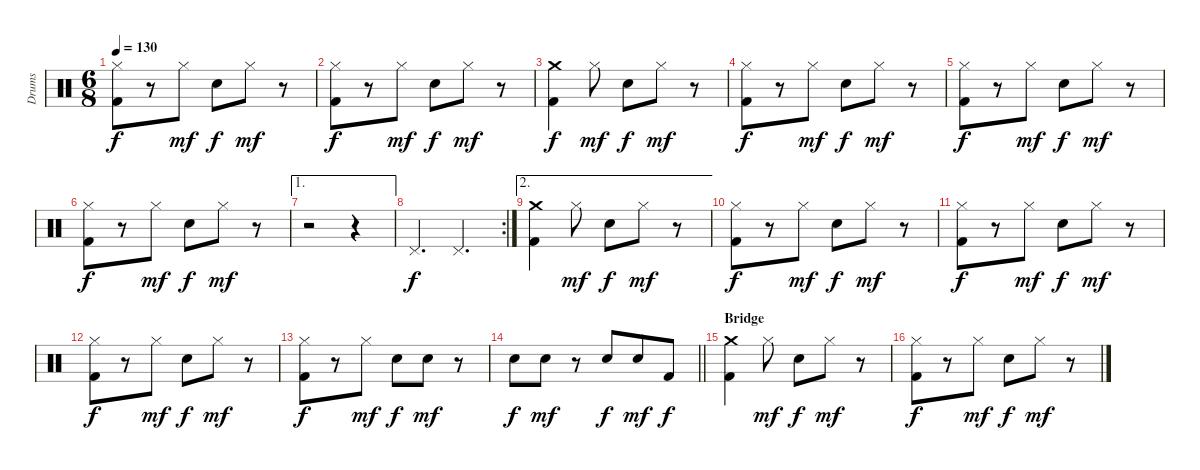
\track ("Drums" "Drums") {instrument percussion}
\staff {score}
\articulation defaults
\ts (6 8)
\tempo 130
\clef neutral
\ks c
("Hi-Hat (closed)" "Kick (hit) 2").8{dy f} r.8 "Hi-Hat (closed)".8{dy mf} "Snare (hit) 2".8{dy f} "Hi-Hat (closed)".8{dy mf} r.8 |
("Hi-Hat (closed)" "Kick (hit) 2").8{dy f} r.8 "Hi-Hat (closed)".8{dy mf} "Snare (hit) 2".8{dy f} "Hi-Hat (closed)".8{dy mf} r.8 |
("Crash medium (hit)" "Kick (hit) 2").4{dy f} "Hi-Hat (closed)".8{dy mf} "Snare (hit) 2".8{dy f} "Hi-Hat (closed)".8{dy mf} r.8 |
("Hi-Hat (closed)" "Kick (hit) 2").8{dy f} r.8 "Hi-Hat (closed)".8{dy mf} "Snare (hit) 2".8{dy f} "Hi-Hat (closed)".8{dy mf} r.8 |
("Hi-Hat (closed)" "Kick (hit) 2").8{dy f} r.8 "Hi-Hat (closed)".8{dy mf} "Snare (hit) 2".8{dy f} "Hi-Hat (closed)".8{dy mf} r.8 |
("Hi-Hat (closed)" "Kick (hit) 2").8{dy f} r.8 "Hi-Hat (closed)".8{dy mf} "Snare (hit) 2".8{dy f} "Hi-Hat (closed)".8{dy mf} r.8 |
\ae 1
r.2 r.4 |
\rc 2 "Pedal Hi-Hat (hit)".4{d dy f} "Pedal Hi-Hat (hit)".4{d}
|
\ae 2
("Crash medium (hit)" "Kick (hit) 2").4 "Hi-Hat (closed)".8{dy mf} "Snare (hit) 2".8{dy f} "Hi-Hat (closed)".8{dy mf} r.8 |
("Hi-Hat (closed)" "Kick (hit) 2").8{dy f} r.8 "Hi-Hat (closed)".8{dy mf} "Snare (hit) 2".8{dy f} "Hi-Hat (closed)".8{dy mf} r.8 |
("Hi-Hat (closed)" "Kick (hit) 2").8{dy f} r.8 "Hi-Hat (closed)".8{dy mf} "Snare (hit) 2".8{dy f} "Hi-Hat (closed)".8{dy mf} r.8 |
("Hi-Hat (closed)" "Kick (hit) 2").8{dy f} r.8 "Hi-Hat (closed)".8{dy mf} "Snare (hit) 2".8{dy f} "Hi-Hat (closed)".8{dy mf} r.8 |
("Hi-Hat (closed)" "Kick (hit) 2").8{dy f} r.8 "Hi-Hat (closed)".8{dy mf} "Snare (hit) 2".8{dy f} "Snare (hit) 2".8{dy mf} r.8 |
\barLineRight lightlight "Snare (hit) 2".8{dy f} "Snare (hit) 2".8{dy mf}
r.8 "Snare (hit) 2".8{dy f} "Snare (hit) 2".8{dy mf} "Kick (hit) 2".8{dy f} |
\section ("" "Bridge")
("Crash medium (hit)" "Kick (hit) 2").4 "Hi-Hat (closed)".8{dy mf} "Snare (hit) 2".8{dy f} "Hi-Hat (closed)".8{dy mf} r.8 |
("Hi-Hat (closed)" "Kick (hit) 2").8{dy f} r.8 "Hi-Hat (closed)".8{dy mf} "Snare (hit) 2".8{dy f} "Hi-Hat (closed)".8{dy mf} r.8
